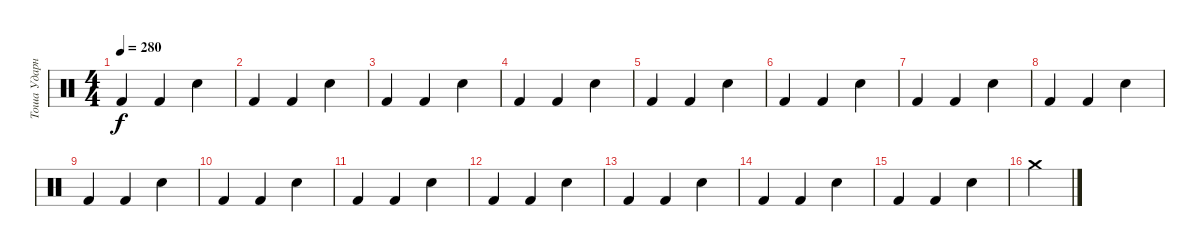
\track ("Тоша Ударные" "Тоша Ударн") {instrument percussion}
\staff {score}
\articulation defaults
\ts (4 4)
\tempo 280
\clef neutral
\ks c "Kick (hit) 2".4{dy f} "Kick (hit) 2".4 "Electric Snare (hit)".4
|
"Kick (hit) 2".4 "Kick (hit) 2".4 "Electric Snare (hit)".4 |
"Kick (hit) 2".4 "Kick (hit) 2".4 "Electric Snare (hit)".4 |
"Kick (hit) 2".4 "Kick (hit) 2".4 "Electric Snare (hit)".4 |
"Kick (hit) 2".4 "Kick (hit) 2".4 "Electric Snare (hit)".4 |
"Kick (hit) 2".4 "Kick (hit) 2".4 "Electric Snare (hit)".4 |
"Kick (hit) 2".4 "Kick (hit) 2".4 "Electric Snare (hit)".4 |
"Kick (hit) 2".4 "Kick (hit) 2".4 "Electric Snare (hit)".4 |
"Kick (hit) 2".4 "Kick (hit) 2".4 "Electric Snare (hit)".4 |
"Kick (hit) 2".4 "Kick (hit) 2".4 "Electric Snare (hit)".4 |
"Kick (hit) 2".4 "Kick (hit) 2".4 "Electric Snare (hit)".4 |
"Kick (hit) 2".4 "Kick (hit) 2".4 "Electric Snare (hit)".4 |
"Kick (hit) 2".4 "Kick (hit) 2".4 "Electric Snare (hit)".4 |
"Kick (hit) 2".4 "Kick (hit) 2".4 "Electric Snare (hit)".4 |
"Kick (hit) 2".4 "Kick (hit) 2".4 "Electric Snare (hit)".4 |
"Crash medium (hit)".4
